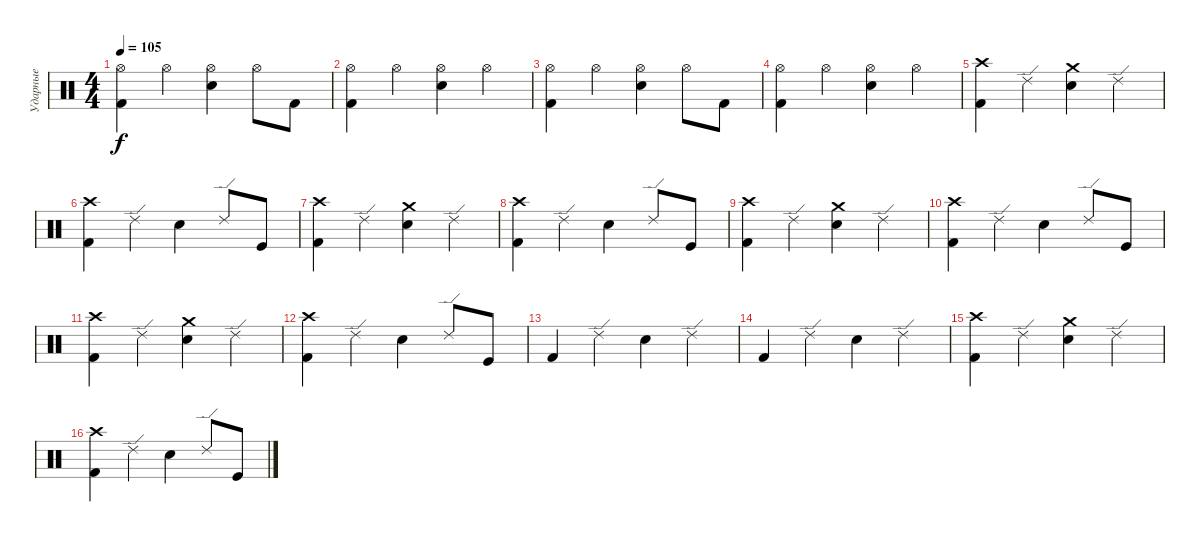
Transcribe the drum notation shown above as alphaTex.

\track ("Ударные" "Ударные") {instrument percussion}
\staff {score}
\articulation defaults
\ts (4 4)
\tempo 105
\clef neutral
\ks c
("Hi-Hat (open)" "Kick (hit) 2").4{dy f} "Hi-Hat (open)".4 ("Electric Snare (hit)" "Hi-Hat (open)").4 "Hi-Hat (open)".8 "Kick (hit) 2".8 |
("Kick (hit) 2" "Hi-Hat (open)").4 "Hi-Hat (open)".4 ("Hi-Hat (open)" "Electric Snare (hit)").4 "Hi-Hat (open)".4 |
("Hi-Hat (open)" "Kick (hit) 2").4 "Hi-Hat (open)".4 ("Electric Snare (hit)" "Hi-Hat (open)").4 "Hi-Hat (open)".8 "Kick (hit) 2".8 |
("Kick (hit) 2" "Hi-Hat (open)").4 "Hi-Hat (open)".4 ("Hi-Hat (open)" "Electric Snare (hit)").4 "Hi-Hat (open)".4 |
("Kick (hit) 2" "Crash high (hit)").4 "Ride (edge) 2".4 ("Electric Snare (hit)" "Crash medium (hit)").4 "Ride (edge) 2".4 |
("Crash high (hit)" "Kick (hit) 2").4 "Ride (edge) 2".4 "Electric Snare (hit)".4 "Ride (edge) 2".8 "Kick (hit)".8 |
("Kick (hit) 2" "Crash high (hit)").4 "Ride (edge) 2".4 ("Electric Snare (hit)" "Crash medium (hit)").4 "Ride (edge) 2".4 |
("Crash high (hit)" "Kick (hit) 2").4 "Ride (edge) 2".4 "Electric Snare (hit)".4 "Ride (edge) 2".8 "Kick (hit)".8 |
("Kick (hit) 2" "Crash high (hit)").4 "Ride (edge) 2".4 ("Electric Snare (hit)" "Crash medium (hit)").4 "Ride (edge) 2".4 |
("Crash high (hit)" "Kick (hit) 2").4 "Ride (edge) 2".4 "Electric Snare (hit)".4 "Ride (edge) 2".8 "Kick (hit)".8 |
("Kick (hit) 2" "Crash high (hit)").4 "Ride (edge) 2".4 ("Electric Snare (hit)" "Crash medium (hit)").4 "Ride (edge) 2".4 |
("Crash high (hit)" "Kick (hit) 2").4 "Ride (edge) 2".4 "Electric Snare (hit)".4 "Ride (edge) 2".8 "Kick (hit)".8 |
"Kick (hit) 2".4 "Ride (edge) 2".4 "Electric Snare (hit)".4 "Ride (edge) 2".4 |
"Kick (hit) 2".4 "Ride (edge) 2".4 "Electric Snare (hit)".4 "Ride (edge) 2".4 |
("Kick (hit) 2" "Crash high (hit)").4 "Ride (edge) 2".4 ("Electric Snare (hit)" "Crash medium (hit)").4 "Ride (edge) 2".4 |
("Crash high (hit)" "Kick (hit) 2").4 "Ride (edge) 2".4 "Electric Snare (hit)".4 "Ride (edge) 2".8 "Kick (hit)".8
